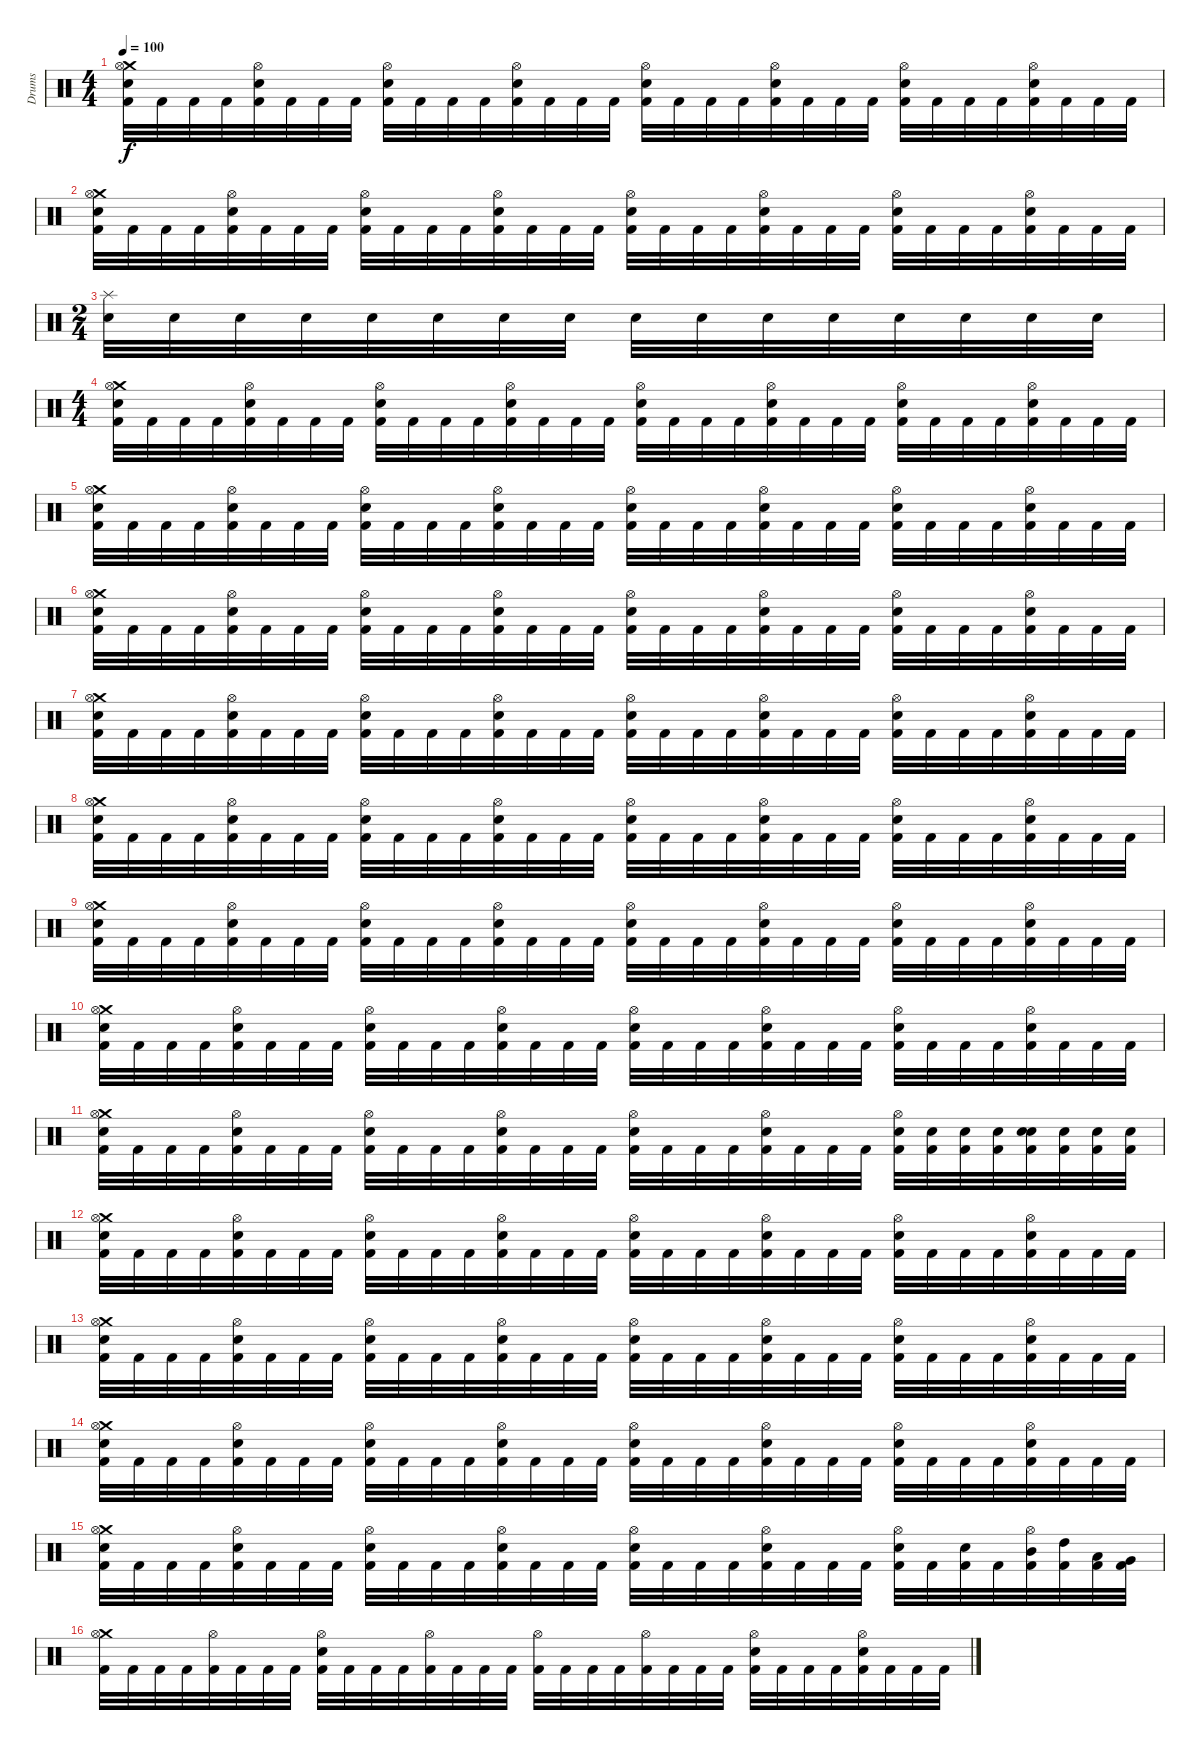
\track ("Drums" "Drums") {instrument percussion}
\staff {score}
\articulation defaults
\ts (4 4)
\tempo 100
\clef neutral
\ks c
("Crash medium (hit)" "Hi-Hat (open)" "Electric Snare (hit)" "Kick (hit) 2").32{dy f} "Kick (hit) 2".32 "Kick (hit) 2".32 "Kick (hit) 2".32 ("Hi-Hat (open)" "Electric Snare (hit)" "Kick (hit) 2").32 "Kick (hit) 2".32 "Kick (hit) 2".32 "Kick (hit) 2".32 ("Hi-Hat (open)" "Electric Snare (hit)" "Kick (hit) 2").32 "Kick (hit) 2".32 "Kick (hit) 2".32 "Kick (hit) 2".32 ("Hi-Hat (open)" "Electric Snare (hit)" "Kick (hit) 2").32 "Kick (hit) 2".32 "Kick (hit) 2".32 "Kick (hit) 2".32 ("Hi-Hat (open)" "Electric Snare (hit)" "Kick (hit) 2").32 "Kick (hit) 2".32 "Kick (hit) 2".32 "Kick (hit) 2".32 ("Hi-Hat (open)" "Electric Snare (hit)" "Kick (hit) 2").32 "Kick (hit) 2".32 "Kick (hit) 2".32 "Kick (hit) 2".32 ("Hi-Hat (open)" "Electric Snare (hit)" "Kick (hit) 2").32 "Kick (hit) 2".32 "Kick (hit) 2".32 "Kick (hit) 2".32 ("Electric Snare (hit)" "Hi-Hat (open)" "Kick (hit) 2").32 "Kick (hit) 2".32 "Kick (hit) 2".32 "Kick (hit) 2".32 |
("Crash medium (hit)" "Hi-Hat (open)" "Electric Snare (hit)" "Kick (hit) 2").32 "Kick (hit) 2".32 "Kick (hit) 2".32 "Kick (hit) 2".32 ("Hi-Hat (open)" "Electric Snare (hit)" "Kick (hit) 2").32 "Kick (hit) 2".32 "Kick (hit) 2".32 "Kick (hit) 2".32 ("Hi-Hat (open)" "Electric Snare (hit)" "Kick (hit) 2").32 "Kick (hit) 2".32 "Kick (hit) 2".32 "Kick (hit) 2".32 ("Hi-Hat (open)" "Electric Snare (hit)" "Kick (hit) 2").32 "Kick (hit) 2".32 "Kick (hit) 2".32 "Kick (hit) 2".32 ("Hi-Hat (open)" "Electric Snare (hit)" "Kick (hit) 2").32 "Kick (hit) 2".32 "Kick (hit) 2".32 "Kick (hit) 2".32 ("Hi-Hat (open)" "Electric Snare (hit)" "Kick (hit) 2").32 "Kick (hit) 2".32 "Kick (hit) 2".32 "Kick (hit) 2".32 ("Hi-Hat (open)" "Electric Snare (hit)" "Kick (hit) 2").32 "Kick (hit) 2".32 "Kick (hit) 2".32 "Kick (hit) 2".32 ("Electric Snare (hit)" "Hi-Hat (open)" "Kick (hit) 2").32 "Kick (hit) 2".32 "Kick (hit) 2".32 "Kick (hit) 2".32 |
\ts (2 4)
("Splash (hit)" "Electric Snare (hit)").32 "Electric Snare (hit)".32 "Electric Snare (hit)".32 "Electric Snare (hit)".32 "Electric Snare (hit)".32 "Electric Snare (hit)".32 "Electric Snare (hit)".32 "Electric Snare (hit)".32 "Electric Snare (hit)".32 "Electric Snare (hit)".32 "Electric Snare (hit)".32 "Electric Snare (hit)".32 "Electric Snare (hit)".32 "Electric Snare (hit)".32 "Electric Snare (hit)".32 "Electric Snare (hit)".32 |
\ts (4 4)
("Crash medium (hit)" "Hi-Hat (open)" "Electric Snare (hit)" "Kick (hit) 2").32 "Kick (hit) 2".32 "Kick (hit) 2".32 "Kick (hit) 2".32 ("Hi-Hat (open)" "Electric Snare (hit)" "Kick (hit) 2").32 "Kick (hit) 2".32 "Kick (hit) 2".32 "Kick (hit) 2".32 ("Hi-Hat (open)" "Electric Snare (hit)" "Kick (hit) 2").32 "Kick (hit) 2".32 "Kick (hit) 2".32 "Kick (hit) 2".32 ("Hi-Hat (open)" "Electric Snare (hit)" "Kick (hit) 2").32 "Kick (hit) 2".32 "Kick (hit) 2".32 "Kick (hit) 2".32 ("Hi-Hat (open)" "Electric Snare (hit)" "Kick (hit) 2").32 "Kick (hit) 2".32 "Kick (hit) 2".32 "Kick (hit) 2".32 ("Hi-Hat (open)" "Electric Snare (hit)" "Kick (hit) 2").32 "Kick (hit) 2".32 "Kick (hit) 2".32 "Kick (hit) 2".32 ("Hi-Hat (open)" "Electric Snare (hit)" "Kick (hit) 2").32 "Kick (hit) 2".32 "Kick (hit) 2".32 "Kick (hit) 2".32 ("Electric Snare (hit)" "Hi-Hat (open)" "Kick (hit) 2").32 "Kick (hit) 2".32 "Kick (hit) 2".32 "Kick (hit) 2".32 |
("Crash medium (hit)" "Hi-Hat (open)" "Electric Snare (hit)" "Kick (hit) 2").32 "Kick (hit) 2".32 "Kick (hit) 2".32 "Kick (hit) 2".32 ("Hi-Hat (open)" "Electric Snare (hit)" "Kick (hit) 2").32 "Kick (hit) 2".32 "Kick (hit) 2".32 "Kick (hit) 2".32 ("Hi-Hat (open)" "Electric Snare (hit)" "Kick (hit) 2").32 "Kick (hit) 2".32 "Kick (hit) 2".32 "Kick (hit) 2".32 ("Hi-Hat (open)" "Electric Snare (hit)" "Kick (hit) 2").32 "Kick (hit) 2".32 "Kick (hit) 2".32 "Kick (hit) 2".32 ("Hi-Hat (open)" "Electric Snare (hit)" "Kick (hit) 2").32 "Kick (hit) 2".32 "Kick (hit) 2".32 "Kick (hit) 2".32 ("Hi-Hat (open)" "Electric Snare (hit)" "Kick (hit) 2").32 "Kick (hit) 2".32 "Kick (hit) 2".32 "Kick (hit) 2".32 ("Hi-Hat (open)" "Electric Snare (hit)" "Kick (hit) 2").32 "Kick (hit) 2".32 "Kick (hit) 2".32 "Kick (hit) 2".32 ("Electric Snare (hit)" "Hi-Hat (open)" "Kick (hit) 2").32 "Kick (hit) 2".32 "Kick (hit) 2".32 "Kick (hit) 2".32 |
("Crash medium (hit)" "Hi-Hat (open)" "Electric Snare (hit)" "Kick (hit) 2").32 "Kick (hit) 2".32 "Kick (hit) 2".32 "Kick (hit) 2".32 ("Hi-Hat (open)" "Electric Snare (hit)" "Kick (hit) 2").32 "Kick (hit) 2".32 "Kick (hit) 2".32 "Kick (hit) 2".32 ("Hi-Hat (open)" "Electric Snare (hit)" "Kick (hit) 2").32 "Kick (hit) 2".32 "Kick (hit) 2".32 "Kick (hit) 2".32 ("Hi-Hat (open)" "Electric Snare (hit)" "Kick (hit) 2").32 "Kick (hit) 2".32 "Kick (hit) 2".32 "Kick (hit) 2".32 ("Hi-Hat (open)" "Electric Snare (hit)" "Kick (hit) 2").32 "Kick (hit) 2".32 "Kick (hit) 2".32 "Kick (hit) 2".32 ("Hi-Hat (open)" "Electric Snare (hit)" "Kick (hit) 2").32 "Kick (hit) 2".32 "Kick (hit) 2".32 "Kick (hit) 2".32 ("Hi-Hat (open)" "Electric Snare (hit)" "Kick (hit) 2").32 "Kick (hit) 2".32 "Kick (hit) 2".32 "Kick (hit) 2".32 ("Electric Snare (hit)" "Hi-Hat (open)" "Kick (hit) 2").32 "Kick (hit) 2".32 "Kick (hit) 2".32 "Kick (hit) 2".32 |
("Crash medium (hit)" "Hi-Hat (open)" "Electric Snare (hit)" "Kick (hit) 2").32 "Kick (hit) 2".32 "Kick (hit) 2".32 "Kick (hit) 2".32 ("Hi-Hat (open)" "Electric Snare (hit)" "Kick (hit) 2").32 "Kick (hit) 2".32 "Kick (hit) 2".32 "Kick (hit) 2".32 ("Hi-Hat (open)" "Electric Snare (hit)" "Kick (hit) 2").32 "Kick (hit) 2".32 "Kick (hit) 2".32 "Kick (hit) 2".32 ("Hi-Hat (open)" "Electric Snare (hit)" "Kick (hit) 2").32 "Kick (hit) 2".32 "Kick (hit) 2".32 "Kick (hit) 2".32 ("Hi-Hat (open)" "Electric Snare (hit)" "Kick (hit) 2").32 "Kick (hit) 2".32 "Kick (hit) 2".32 "Kick (hit) 2".32 ("Hi-Hat (open)" "Electric Snare (hit)" "Kick (hit) 2").32 "Kick (hit) 2".32 "Kick (hit) 2".32 "Kick (hit) 2".32 ("Hi-Hat (open)" "Electric Snare (hit)" "Kick (hit) 2").32 "Kick (hit) 2".32 "Kick (hit) 2".32 "Kick (hit) 2".32 ("Electric Snare (hit)" "Hi-Hat (open)" "Kick (hit) 2").32 "Kick (hit) 2".32 "Kick (hit) 2".32 "Kick (hit) 2".32 |
("Crash medium (hit)" "Hi-Hat (open)" "Electric Snare (hit)" "Kick (hit) 2").32 "Kick (hit) 2".32 "Kick (hit) 2".32 "Kick (hit) 2".32 ("Hi-Hat (open)" "Electric Snare (hit)" "Kick (hit) 2").32 "Kick (hit) 2".32 "Kick (hit) 2".32 "Kick (hit) 2".32 ("Hi-Hat (open)" "Electric Snare (hit)" "Kick (hit) 2").32 "Kick (hit) 2".32 "Kick (hit) 2".32 "Kick (hit) 2".32 ("Hi-Hat (open)" "Electric Snare (hit)" "Kick (hit) 2").32 "Kick (hit) 2".32 "Kick (hit) 2".32 "Kick (hit) 2".32 ("Hi-Hat (open)" "Electric Snare (hit)" "Kick (hit) 2").32 "Kick (hit) 2".32 "Kick (hit) 2".32 "Kick (hit) 2".32 ("Hi-Hat (open)" "Electric Snare (hit)" "Kick (hit) 2").32 "Kick (hit) 2".32 "Kick (hit) 2".32 "Kick (hit) 2".32 ("Hi-Hat (open)" "Electric Snare (hit)" "Kick (hit) 2").32 "Kick (hit) 2".32 "Kick (hit) 2".32 "Kick (hit) 2".32 ("Electric Snare (hit)" "Hi-Hat (open)" "Kick (hit) 2").32 "Kick (hit) 2".32 "Kick (hit) 2".32 "Kick (hit) 2".32 |
("Crash medium (hit)" "Hi-Hat (open)" "Electric Snare (hit)" "Kick (hit) 2").32 "Kick (hit) 2".32 "Kick (hit) 2".32 "Kick (hit) 2".32 ("Hi-Hat (open)" "Electric Snare (hit)" "Kick (hit) 2").32 "Kick (hit) 2".32 "Kick (hit) 2".32 "Kick (hit) 2".32 ("Hi-Hat (open)" "Electric Snare (hit)" "Kick (hit) 2").32 "Kick (hit) 2".32 "Kick (hit) 2".32 "Kick (hit) 2".32 ("Hi-Hat (open)" "Electric Snare (hit)" "Kick (hit) 2").32 "Kick (hit) 2".32 "Kick (hit) 2".32 "Kick (hit) 2".32 ("Hi-Hat (open)" "Electric Snare (hit)" "Kick (hit) 2").32 "Kick (hit) 2".32 "Kick (hit) 2".32 "Kick (hit) 2".32 ("Hi-Hat (open)" "Electric Snare (hit)" "Kick (hit) 2").32 "Kick (hit) 2".32 "Kick (hit) 2".32 "Kick (hit) 2".32 ("Hi-Hat (open)" "Electric Snare (hit)" "Kick (hit) 2").32 "Kick (hit) 2".32 "Kick (hit) 2".32 "Kick (hit) 2".32 ("Electric Snare (hit)" "Hi-Hat (open)" "Kick (hit) 2").32 "Kick (hit) 2".32 "Kick (hit) 2".32 "Kick (hit) 2".32 |
("Crash medium (hit)" "Hi-Hat (open)" "Electric Snare (hit)" "Kick (hit) 2").32 "Kick (hit) 2".32 "Kick (hit) 2".32 "Kick (hit) 2".32 ("Hi-Hat (open)" "Electric Snare (hit)" "Kick (hit) 2").32 "Kick (hit) 2".32 "Kick (hit) 2".32 "Kick (hit) 2".32 ("Hi-Hat (open)" "Electric Snare (hit)" "Kick (hit) 2").32 "Kick (hit) 2".32 "Kick (hit) 2".32 "Kick (hit) 2".32 ("Hi-Hat (open)" "Electric Snare (hit)" "Kick (hit) 2").32 "Kick (hit) 2".32 "Kick (hit) 2".32 "Kick (hit) 2".32 ("Hi-Hat (open)" "Electric Snare (hit)" "Kick (hit) 2").32 "Kick (hit) 2".32 "Kick (hit) 2".32 "Kick (hit) 2".32 ("Hi-Hat (open)" "Electric Snare (hit)" "Kick (hit) 2").32 "Kick (hit) 2".32 "Kick (hit) 2".32 "Kick (hit) 2".32 ("Hi-Hat (open)" "Electric Snare (hit)" "Kick (hit) 2").32 "Kick (hit) 2".32 "Kick (hit) 2".32 "Kick (hit) 2".32 ("Electric Snare (hit)" "Hi-Hat (open)" "Kick (hit) 2").32 "Kick (hit) 2".32 "Kick (hit) 2".32 "Kick (hit) 2".32 |
("Crash medium (hit)" "Hi-Hat (open)" "Electric Snare (hit)" "Kick (hit) 2").32 "Kick (hit) 2".32 "Kick (hit) 2".32 "Kick (hit) 2".32 ("Hi-Hat (open)" "Electric Snare (hit)" "Kick (hit) 2").32 "Kick (hit) 2".32 "Kick (hit) 2".32 "Kick (hit) 2".32 ("Hi-Hat (open)" "Electric Snare (hit)" "Kick (hit) 2").32 "Kick (hit) 2".32 "Kick (hit) 2".32 "Kick (hit) 2".32 ("Hi-Hat (open)" "Electric Snare (hit)" "Kick (hit) 2").32 "Kick (hit) 2".32 "Kick (hit) 2".32 "Kick (hit) 2".32 ("Hi-Hat (open)" "Electric Snare (hit)" "Kick (hit) 2").32 "Kick (hit) 2".32 "Kick (hit) 2".32 "Kick (hit) 2".32 ("Hi-Hat (open)" "Electric Snare (hit)" "Kick (hit) 2").32 "Kick (hit) 2".32 "Kick (hit) 2".32 "Kick (hit) 2".32 ("Hi-Hat (open)" "Electric Snare (hit)" "Kick (hit) 2").32 ("Electric Snare (hit)" "Kick (hit) 2").32 ("Electric Snare (hit)" "Kick (hit) 2").32 ("Electric Snare (hit)" "Kick (hit) 2").32 ("Electric Snare (hit)" "Electric Snare (hit)" "Kick (hit) 2").32 ("Electric Snare (hit)" "Kick (hit) 2").32 ("Electric Snare (hit)" "Kick (hit) 2").32 ("Electric Snare (hit)" "Kick (hit) 2").32 |
("Crash medium (hit)" "Hi-Hat (open)" "Electric Snare (hit)" "Kick (hit) 2").32 "Kick (hit) 2".32 "Kick (hit) 2".32 "Kick (hit) 2".32 ("Hi-Hat (open)" "Electric Snare (hit)" "Kick (hit) 2").32 "Kick (hit) 2".32 "Kick (hit) 2".32 "Kick (hit) 2".32 ("Hi-Hat (open)" "Electric Snare (hit)" "Kick (hit) 2").32 "Kick (hit) 2".32 "Kick (hit) 2".32 "Kick (hit) 2".32 ("Hi-Hat (open)" "Electric Snare (hit)" "Kick (hit) 2").32 "Kick (hit) 2".32 "Kick (hit) 2".32 "Kick (hit) 2".32 ("Hi-Hat (open)" "Electric Snare (hit)" "Kick (hit) 2").32 "Kick (hit) 2".32 "Kick (hit) 2".32 "Kick (hit) 2".32 ("Hi-Hat (open)" "Electric Snare (hit)" "Kick (hit) 2").32 "Kick (hit) 2".32 "Kick (hit) 2".32 "Kick (hit) 2".32 ("Hi-Hat (open)" "Electric Snare (hit)" "Kick (hit) 2").32 "Kick (hit) 2".32 "Kick (hit) 2".32 "Kick (hit) 2".32 ("Electric Snare (hit)" "Hi-Hat (open)" "Kick (hit) 2").32 "Kick (hit) 2".32 "Kick (hit) 2".32 "Kick (hit) 2".32 |
("Crash medium (hit)" "Hi-Hat (open)" "Electric Snare (hit)" "Kick (hit) 2").32 "Kick (hit) 2".32 "Kick (hit) 2".32 "Kick (hit) 2".32 ("Hi-Hat (open)" "Electric Snare (hit)" "Kick (hit) 2").32 "Kick (hit) 2".32 "Kick (hit) 2".32 "Kick (hit) 2".32 ("Hi-Hat (open)" "Electric Snare (hit)" "Kick (hit) 2").32 "Kick (hit) 2".32 "Kick (hit) 2".32 "Kick (hit) 2".32 ("Hi-Hat (open)" "Electric Snare (hit)" "Kick (hit) 2").32 "Kick (hit) 2".32 "Kick (hit) 2".32 "Kick (hit) 2".32 ("Hi-Hat (open)" "Electric Snare (hit)" "Kick (hit) 2").32 "Kick (hit) 2".32 "Kick (hit) 2".32 "Kick (hit) 2".32 ("Hi-Hat (open)" "Electric Snare (hit)" "Kick (hit) 2").32 "Kick (hit) 2".32 "Kick (hit) 2".32 "Kick (hit) 2".32 ("Hi-Hat (open)" "Electric Snare (hit)" "Kick (hit) 2").32 "Kick (hit) 2".32 "Kick (hit) 2".32 "Kick (hit) 2".32 ("Electric Snare (hit)" "Hi-Hat (open)" "Kick (hit) 2").32 "Kick (hit) 2".32 "Kick (hit) 2".32 "Kick (hit) 2".32 |
("Crash medium (hit)" "Hi-Hat (open)" "Electric Snare (hit)" "Kick (hit) 2").32 "Kick (hit) 2".32 "Kick (hit) 2".32 "Kick (hit) 2".32 ("Hi-Hat (open)" "Electric Snare (hit)" "Kick (hit) 2").32 "Kick (hit) 2".32 "Kick (hit) 2".32 "Kick (hit) 2".32 ("Hi-Hat (open)" "Electric Snare (hit)" "Kick (hit) 2").32 "Kick (hit) 2".32 "Kick (hit) 2".32 "Kick (hit) 2".32 ("Hi-Hat (open)" "Electric Snare (hit)" "Kick (hit) 2").32 "Kick (hit) 2".32 "Kick (hit) 2".32 "Kick (hit) 2".32 ("Hi-Hat (open)" "Electric Snare (hit)" "Kick (hit) 2").32 "Kick (hit) 2".32 "Kick (hit) 2".32 "Kick (hit) 2".32 ("Hi-Hat (open)" "Electric Snare (hit)" "Kick (hit) 2").32 "Kick (hit) 2".32 "Kick (hit) 2".32 "Kick (hit) 2".32 ("Hi-Hat (open)" "Electric Snare (hit)" "Kick (hit) 2").32 "Kick (hit) 2".32 "Kick (hit) 2".32 "Kick (hit) 2".32 ("Electric Snare (hit)" "Hi-Hat (open)" "Kick (hit) 2").32 "Kick (hit) 2".32 "Kick (hit) 2".32 "Kick (hit) 2".32 |
("Crash medium (hit)" "Hi-Hat (open)" "Electric Snare (hit)" "Kick (hit) 2").32 "Kick (hit) 2".32 "Kick (hit) 2".32 "Kick (hit) 2".32 ("Hi-Hat (open)" "Electric Snare (hit)" "Kick (hit) 2").32 "Kick (hit) 2".32 "Kick (hit) 2".32 "Kick (hit) 2".32 ("Hi-Hat (open)" "Electric Snare (hit)" "Kick (hit) 2").32 "Kick (hit) 2".32 "Kick (hit) 2".32 "Kick (hit) 2".32 ("Hi-Hat (open)" "Electric Snare (hit)" "Kick (hit) 2").32 "Kick (hit) 2".32 "Kick (hit) 2".32 "Kick (hit) 2".32 ("Hi-Hat (open)" "Electric Snare (hit)" "Kick (hit) 2").32 "Kick (hit) 2".32 "Kick (hit) 2".32 "Kick (hit) 2".32 ("Hi-Hat (open)" "Electric Snare (hit)" "Kick (hit) 2").32 "Kick (hit) 2".32 "Kick (hit) 2".32 "Kick (hit) 2".32 ("Hi-Hat (open)" "Electric Snare (hit)" "Kick (hit) 2").32 "Kick (hit) 2".32 ("Electric Snare (hit)" "Kick (hit) 2").32 "Kick (hit) 2".32 ("Mid Tom (hit)" "Hi-Hat (open)" "Kick (hit) 2").32 ("High Tom (hit)" "Kick (hit) 2").32 ("Low Tom (hit)" "Kick (hit) 2").32 ("Very Low Tom (hit)" "Kick (hit) 2").32 |
("Crash medium (hit)" "Hi-Hat (open)" "Kick (hit) 2").32 "Kick (hit) 2".32 "Kick (hit) 2".32 "Kick (hit) 2".32 ("Hi-Hat (open)" "Kick (hit) 2").32 "Kick (hit) 2".32 "Kick (hit) 2".32 "Kick (hit) 2".32 ("Hi-Hat (open)" "Electric Snare (hit)" "Kick (hit) 2").32 "Kick (hit) 2".32 "Kick (hit) 2".32 "Kick (hit) 2".32 ("Hi-Hat (open)" "Kick (hit) 2").32 "Kick (hit) 2".32 "Kick (hit) 2".32 "Kick (hit) 2".32 ("Hi-Hat (open)" "Kick (hit) 2").32 "Kick (hit) 2".32 "Kick (hit) 2".32 "Kick (hit) 2".32 ("Hi-Hat (open)" "Kick (hit) 2").32 "Kick (hit) 2".32 "Kick (hit) 2".32 "Kick (hit) 2".32 ("Hi-Hat (open)" "Electric Snare (hit)" "Kick (hit) 2").32 "Kick (hit) 2".32 "Kick (hit) 2".32 "Kick (hit) 2".32 ("Electric Snare (hit)" "Hi-Hat (open)" "Kick (hit) 2").32 "Kick (hit) 2".32 "Kick (hit) 2".32 "Kick (hit) 2".32
